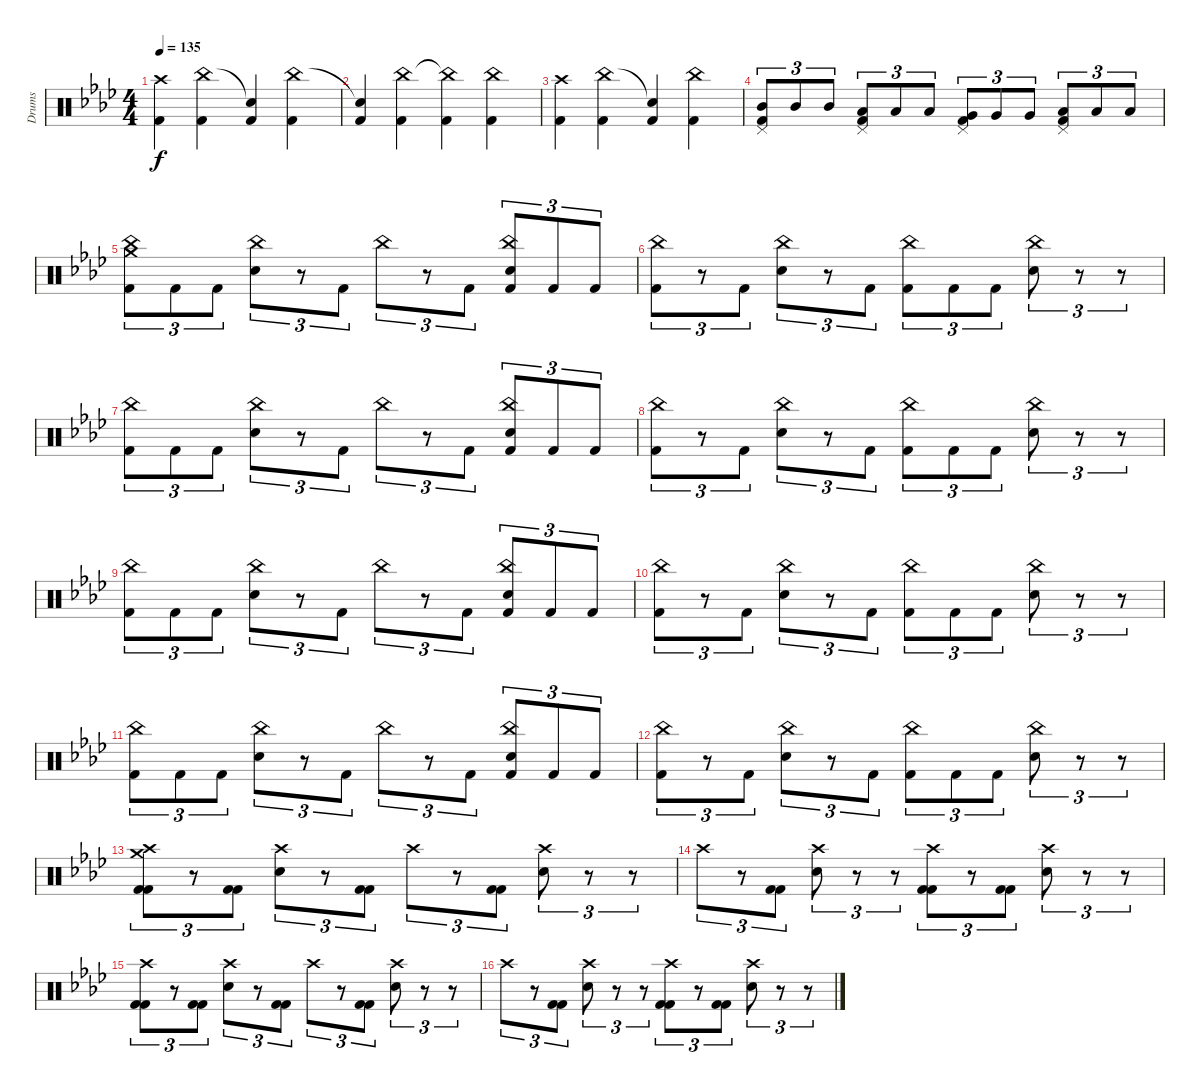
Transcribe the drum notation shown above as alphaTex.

\track ("Drums" "Drums") {instrument percussion}
\staff {score}
\articulation defaults
\ts (4 4)
\tempo 135
\clef neutral
\ks ab
("Crash high (hit)" "Kick (hit) 2").4{dy f} ("China (hit)" "Kick (hit) 2").4 ("Snare (hit)"{t} "Kick (hit) 2").4 ("China (hit)" "Kick (hit) 2").4 |
("Snare (hit)"{t} "Kick (hit) 2").4 ("China (hit)" "Kick (hit) 2").4 ("China (hit)"{t} "Kick (hit) 2").4 ("China (hit)" "Kick (hit) 2").4 |
("Crash high (hit)" "Kick (hit) 2").4 ("China (hit)" "Kick (hit) 2").4 ("Snare (hit)"{t} "Kick (hit) 2").4 ("China (hit)" "Kick (hit) 2").4 |
("Pedal Hi-Hat (hit)" "Mid Tom (hit)" "Kick (hit) 2").8{tu (3 2)} "Mid Tom (hit)".8{tu (3 2)} "Mid Tom (hit)".8{tu (3 2)} ("Pedal Hi-Hat (hit)" "Low Tom (hit)" "Kick (hit) 2").8{tu (3 2)} "Low Tom (hit)".8{tu (3 2)} "Low Tom (hit)".8{tu (3 2)} ("Pedal Hi-Hat (hit)" "Very Low Tom (hit)" "Kick (hit) 2").8{tu (3 2)} "Very Low Tom (hit)".8{tu (3 2)} "Very Low Tom (hit)".8{tu (3 2)} ("Pedal Hi-Hat (hit)" "Low Floor Tom (hit)" "Kick (hit) 2").8{tu (3 2)} "Low Floor Tom (hit)".8{tu (3 2)} "Low Floor Tom (hit)".8{tu (3 2)} |
("Crash medium (hit)" "China (hit)" "Kick (hit) 2").8{tu (3 2)} "Kick (hit) 2".8{tu (3 2)} "Kick (hit) 2".8{tu (3 2)} ("China (hit)" "Electric Snare (hit)").8{tu (3 2)} r.8{tu (3 2)} "Kick (hit) 2".8{tu (3 2)} "China (hit)".8{tu (3 2)} r.8{tu (3 2)} "Kick (hit) 2".8{tu (3 2)} ("China (hit)" "Electric Snare (hit)" "Kick (hit) 2").8{tu (3 2)} "Kick (hit) 2".8{tu (3 2)} "Kick (hit) 2".8{tu (3 2)} |
("China (hit)" "Kick (hit) 2").8{tu (3 2)} r.8{tu (3 2)} "Kick (hit) 2".8{tu (3 2)} ("China (hit)" "Electric Snare (hit)").8{tu (3 2)} r.8{tu (3 2)} "Kick (hit) 2".8{tu (3 2)} ("China (hit)" "Kick (hit) 2").8{tu (3 2)} "Kick (hit) 2".8{tu (3 2)} "Kick (hit) 2".8{tu (3 2)} ("China (hit)" "Electric Snare (hit)").8{tu (3 2)} r.8{tu (3 2)} r.8{tu (3 2)} |
("China (hit)" "Kick (hit) 2").8{tu (3 2)} "Kick (hit) 2".8{tu (3 2)} "Kick (hit) 2".8{tu (3 2)} ("China (hit)" "Electric Snare (hit)").8{tu (3 2)} r.8{tu (3 2)} "Kick (hit) 2".8{tu (3 2)} "China (hit)".8{tu (3 2)} r.8{tu (3 2)} "Kick (hit) 2".8{tu (3 2)} ("China (hit)" "Electric Snare (hit)" "Kick (hit) 2").8{tu (3 2)} "Kick (hit) 2".8{tu (3 2)} "Kick (hit) 2".8{tu (3 2)} |
("China (hit)" "Kick (hit) 2").8{tu (3 2)} r.8{tu (3 2)} "Kick (hit) 2".8{tu (3 2)} ("China (hit)" "Electric Snare (hit)").8{tu (3 2)} r.8{tu (3 2)} "Kick (hit) 2".8{tu (3 2)} ("China (hit)" "Kick (hit) 2").8{tu (3 2)} "Kick (hit) 2".8{tu (3 2)} "Kick (hit) 2".8{tu (3 2)} ("China (hit)" "Electric Snare (hit)").8{tu (3 2)} r.8{tu (3 2)} r.8{tu (3 2)} |
("China (hit)" "Kick (hit) 2").8{tu (3 2)} "Kick (hit) 2".8{tu (3 2)} "Kick (hit) 2".8{tu (3 2)} ("China (hit)" "Electric Snare (hit)").8{tu (3 2)} r.8{tu (3 2)} "Kick (hit) 2".8{tu (3 2)} "China (hit)".8{tu (3 2)} r.8{tu (3 2)} "Kick (hit) 2".8{tu (3 2)} ("China (hit)" "Electric Snare (hit)" "Kick (hit) 2").8{tu (3 2)} "Kick (hit) 2".8{tu (3 2)} "Kick (hit) 2".8{tu (3 2)} |
("China (hit)" "Kick (hit) 2").8{tu (3 2)} r.8{tu (3 2)} "Kick (hit) 2".8{tu (3 2)} ("China (hit)" "Electric Snare (hit)").8{tu (3 2)} r.8{tu (3 2)} "Kick (hit) 2".8{tu (3 2)} ("China (hit)" "Kick (hit) 2").8{tu (3 2)} "Kick (hit) 2".8{tu (3 2)} "Kick (hit) 2".8{tu (3 2)} ("China (hit)" "Electric Snare (hit)").8{tu (3 2)} r.8{tu (3 2)} r.8{tu (3 2)} |
("China (hit)" "Kick (hit) 2").8{tu (3 2)} "Kick (hit) 2".8{tu (3 2)} "Kick (hit) 2".8{tu (3 2)} ("China (hit)" "Electric Snare (hit)").8{tu (3 2)} r.8{tu (3 2)} "Kick (hit) 2".8{tu (3 2)} "China (hit)".8{tu (3 2)} r.8{tu (3 2)} "Kick (hit) 2".8{tu (3 2)} ("China (hit)" "Electric Snare (hit)" "Kick (hit) 2").8{tu (3 2)} "Kick (hit) 2".8{tu (3 2)} "Kick (hit) 2".8{tu (3 2)} |
("China (hit)" "Kick (hit) 2").8{tu (3 2)} r.8{tu (3 2)} "Kick (hit) 2".8{tu (3 2)} ("China (hit)" "Electric Snare (hit)").8{tu (3 2)} r.8{tu (3 2)} "Kick (hit) 2".8{tu (3 2)} ("China (hit)" "Kick (hit) 2").8{tu (3 2)} "Kick (hit) 2".8{tu (3 2)} "Kick (hit) 2".8{tu (3 2)} ("China (hit)" "Electric Snare (hit)").8{tu (3 2)} r.8{tu (3 2)} r.8{tu (3 2)} |
("Crash high (hit)" "Crash medium (hit)" "Kick (hit) 2" "Kick (hit) 2").8{tu (3 2)} r.8{tu (3 2)} ("Kick (hit) 2" "Kick (hit) 2").8{tu (3 2)} ("Crash high (hit)" "Electric Snare (hit)").8{tu (3 2)} r.8{tu (3 2)} ("Kick (hit) 2" "Kick (hit) 2").8{tu (3 2)} "Crash high (hit)".8{tu (3 2)} r.8{tu (3 2)} ("Kick (hit) 2" "Kick (hit) 2").8{tu (3 2)} ("Crash high (hit)" "Electric Snare (hit)").8{tu (3 2)} r.8{tu (3 2)} r.8{tu (3 2)} |
"Crash high (hit)".8{tu (3 2)} r.8{tu (3 2)} ("Kick (hit) 2" "Kick (hit) 2").8{tu (3 2)} ("Crash high (hit)" "Electric Snare (hit)").8{tu (3 2)} r.8{tu (3 2)} r.8{tu (3 2)} ("Crash high (hit)" "Kick (hit) 2" "Kick (hit) 2").8{tu (3 2)} r.8{tu (3 2)} ("Kick (hit) 2" "Kick (hit) 2").8{tu (3 2)} ("Crash high (hit)" "Electric Snare (hit)").8{tu (3 2)} r.8{tu (3 2)} r.8{tu (3 2)} |
("Crash high (hit)" "Kick (hit) 2" "Kick (hit) 2").8{tu (3 2)} r.8{tu (3 2)} ("Kick (hit) 2" "Kick (hit) 2").8{tu (3 2)} ("Crash high (hit)" "Electric Snare (hit)").8{tu (3 2)} r.8{tu (3 2)} ("Kick (hit) 2" "Kick (hit) 2").8{tu (3 2)} "Crash high (hit)".8{tu (3 2)} r.8{tu (3 2)} ("Kick (hit) 2" "Kick (hit) 2").8{tu (3 2)} ("Crash high (hit)" "Electric Snare (hit)").8{tu (3 2)} r.8{tu (3 2)} r.8{tu (3 2)} |
"Crash high (hit)".8{tu (3 2)} r.8{tu (3 2)} ("Kick (hit) 2" "Kick (hit) 2").8{tu (3 2)} ("Crash high (hit)" "Electric Snare (hit)").8{tu (3 2)} r.8{tu (3 2)} r.8{tu (3 2)} ("Crash high (hit)" "Kick (hit) 2" "Kick (hit) 2").8{tu (3 2)} r.8{tu (3 2)} ("Kick (hit) 2" "Kick (hit) 2").8{tu (3 2)} ("Crash high (hit)" "Electric Snare (hit)").8{tu (3 2)} r.8{tu (3 2)} r.8{tu (3 2)}
